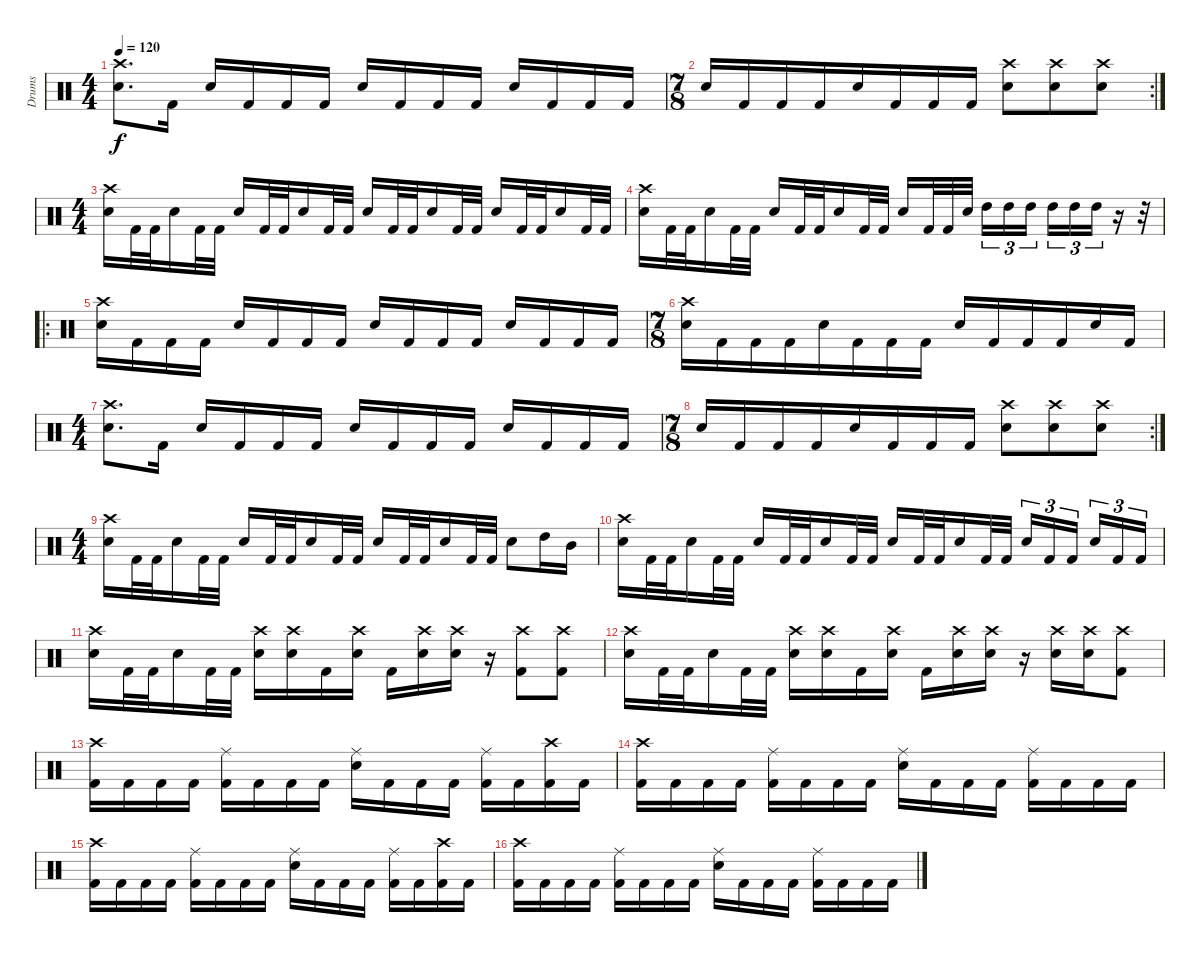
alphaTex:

\track ("Drums" "Drums") {instrument percussion}
\staff {score}
\articulation defaults
\ts (4 4)
\tempo 120
\clef neutral
\ks c
("Crash high (hit)" "Electric Snare (hit)").8{d dy f} "Kick (hit) 2".16 "Electric Snare (hit)".16 "Kick (hit) 2".16 "Kick (hit) 2".16 "Kick (hit) 2".16 "Electric Snare (hit)".16 "Kick (hit) 2".16 "Kick (hit) 2".16 "Kick (hit) 2".16 "Electric Snare (hit)".16 "Kick (hit) 2".16 "Kick (hit) 2".16 "Kick (hit) 2".16 |
\rc 2
\ts (7 8)
"Electric Snare (hit)".16 "Kick (hit) 2".16 "Kick (hit) 2".16 "Kick (hit) 2".16 "Electric Snare (hit)".16 "Kick (hit) 2".16 "Kick (hit) 2".16 "Kick (hit) 2".16 ("Crash high (hit)" "Electric Snare (hit)").8 ("Crash high (hit)" "Electric Snare (hit)").8 ("Crash high (hit)" "Electric Snare (hit)").8 |
\ts (4 4)
("Crash high (hit)" "Electric Snare (hit)").16 "Kick (hit) 2".32 "Kick (hit) 2".32 "Electric Snare (hit)".16 "Kick (hit) 2".32 "Kick (hit) 2".32 "Electric Snare (hit)".16 "Kick (hit) 2".32 "Kick (hit) 2".32 "Electric Snare (hit)".16 "Kick (hit) 2".32 "Kick (hit) 2".32 "Electric Snare (hit)".16 "Kick (hit) 2".32 "Kick (hit) 2".32 "Electric Snare (hit)".16 "Kick (hit) 2".32 "Kick (hit) 2".32 "Electric Snare (hit)".16 "Kick (hit) 2".32 "Kick (hit) 2".32 "Electric Snare (hit)".16 "Kick (hit) 2".32 "Kick (hit) 2".32 |
("Crash high (hit)" "Electric Snare (hit)").16 "Kick (hit) 2".32 "Kick (hit) 2".32 "Electric Snare (hit)".16 "Kick (hit) 2".32 "Kick (hit) 2".32 "Electric Snare (hit)".16 "Kick (hit) 2".32 "Kick (hit) 2".32 "Electric Snare (hit)".16 "Kick (hit) 2".32 "Kick (hit) 2".32 "Electric Snare (hit)".16 "Kick (hit) 2".32 "Kick (hit) 2".32 "Electric Snare (hit)".32{beam splitsecondary} "High Tom (hit)".16{tu (3 2)} "High Tom (hit)".16{tu (3 2)} "High Tom (hit)".16{tu (3 2)} "High Tom (hit)".16{tu (3 2)} "High Tom (hit)".16{tu (3 2)} "High Tom (hit)".16{tu (3 2)} r.16 r.32 |
\ro
("Crash high (hit)" "Electric Snare (hit)").16 "Kick (hit) 2".16 "Kick (hit) 2".16 "Kick (hit) 2".16 "Electric Snare (hit)".16 "Kick (hit) 2".16 "Kick (hit) 2".16 "Kick (hit) 2".16 "Electric Snare (hit)".16 "Kick (hit) 2".16 "Kick (hit) 2".16 "Kick (hit) 2".16 "Electric Snare (hit)".16 "Kick (hit) 2".16 "Kick (hit) 2".16 "Kick (hit) 2".16 |
\ts (7 8)
("Crash high (hit)" "Electric Snare (hit)").16 "Kick (hit) 2".16 "Kick (hit) 2".16 "Kick (hit) 2".16 "Electric Snare (hit)".16 "Kick (hit) 2".16 "Kick (hit) 2".16 "Kick (hit) 2".16 "Electric Snare (hit)".16 "Kick (hit) 2".16 "Kick (hit) 2".16 "Kick (hit) 2".16 "Electric Snare (hit)".16 "Kick (hit) 2".16 |
\ts (4 4)
("Crash high (hit)" "Electric Snare (hit)").8{d} "Kick (hit) 2".16 "Electric Snare (hit)".16 "Kick (hit) 2".16 "Kick (hit) 2".16 "Kick (hit) 2".16 "Electric Snare (hit)".16 "Kick (hit) 2".16 "Kick (hit) 2".16 "Kick (hit) 2".16 "Electric Snare (hit)".16 "Kick (hit) 2".16 "Kick (hit) 2".16 "Kick (hit) 2".16 |
\rc 2
\ts (7 8)
"Electric Snare (hit)".16 "Kick (hit) 2".16 "Kick (hit) 2".16 "Kick (hit) 2".16 "Electric Snare (hit)".16 "Kick (hit) 2".16 "Kick (hit) 2".16 "Kick (hit) 2".16 ("Crash high (hit)" "Electric Snare (hit)").8 ("Crash high (hit)" "Electric Snare (hit)").8 ("Crash high (hit)" "Electric Snare (hit)").8 |
\ts (4 4)
("Crash high (hit)" "Electric Snare (hit)").16 "Kick (hit) 2".32 "Kick (hit) 2".32 "Electric Snare (hit)".16 "Kick (hit) 2".32 "Kick (hit) 2".32 "Electric Snare (hit)".16 "Kick (hit) 2".32 "Kick (hit) 2".32 "Electric Snare (hit)".16 "Kick (hit) 2".32 "Kick (hit) 2".32 "Electric Snare (hit)".16 "Kick (hit) 2".32 "Kick (hit) 2".32 "Electric Snare (hit)".16 "Kick (hit) 2".32 "Kick (hit) 2".32 "Electric Snare (hit)".8 "High Tom (hit)".16 "Mid Tom (hit)".16 |
("Crash high (hit)" "Electric Snare (hit)").16 "Kick (hit) 2".32 "Kick (hit) 2".32 "Electric Snare (hit)".16 "Kick (hit) 2".32 "Kick (hit) 2".32 "Electric Snare (hit)".16 "Kick (hit) 2".32 "Kick (hit) 2".32 "Electric Snare (hit)".16 "Kick (hit) 2".32 "Kick (hit) 2".32 "Electric Snare (hit)".16 "Kick (hit) 2".32 "Kick (hit) 2".32 "Electric Snare (hit)".16 "Kick (hit) 2".32 "Kick (hit) 2".32 "Electric Snare (hit)".16{tu (3 2)} "Kick (hit) 2".16{tu (3 2)} "Kick (hit) 2".16{tu (3 2) beam splitsecondary} "Electric Snare (hit)".16{tu (3 2)} "Kick (hit) 2".16{tu (3 2)} "Kick (hit) 2".16{tu (3 2)} |
("Crash high (hit)" "Electric Snare (hit)").16 "Kick (hit) 2".32 "Kick (hit) 2".32 "Electric Snare (hit)".16 "Kick (hit) 2".32 "Kick (hit) 2".32 ("Crash high (hit)" "Electric Snare (hit)").16 ("Crash high (hit)" "Electric Snare (hit)").16 "Kick (hit) 2".16 ("Crash high (hit)" "Electric Snare (hit)").16 "Kick (hit) 2".16 ("Crash high (hit)" "Electric Snare (hit)").16 ("Crash high (hit)" "Electric Snare (hit)").16 r.16 ("Crash high (hit)" "Kick (hit) 2").8 ("Crash high (hit)" "Kick (hit) 2").8 |
("Crash high (hit)" "Electric Snare (hit)").16 "Kick (hit) 2".32 "Kick (hit) 2".32 "Electric Snare (hit)".16 "Kick (hit) 2".32 "Kick (hit) 2".32 ("Crash high (hit)" "Electric Snare (hit)").16 ("Crash high (hit)" "Electric Snare (hit)").16 "Kick (hit) 2".16 ("Crash high (hit)" "Electric Snare (hit)").16 "Kick (hit) 2".16 ("Crash high (hit)" "Electric Snare (hit)").16 ("Crash high (hit)" "Electric Snare (hit)").16 r.16 ("Crash high (hit)" "Electric Snare (hit)").16 ("Crash high (hit)" "Electric Snare (hit)").16 ("Crash high (hit)" "Kick (hit) 2").8 |
("Crash high (hit)" "Kick (hit) 2").16 "Kick (hit) 2".16 "Kick (hit) 2".16 "Kick (hit) 2".16 ("Ride (middle)" "Kick (hit) 2").16 "Kick (hit) 2".16 "Kick (hit) 2".16 "Kick (hit) 2".16 ("Ride (middle)" "Electric Snare (hit)").16 "Kick (hit) 2".16 "Kick (hit) 2".16 "Kick (hit) 2".16 ("Ride (middle)" "Kick (hit) 2").16 "Kick (hit) 2".16 ("Crash high (hit)" "Kick (hit) 2").16 "Kick (hit) 2".16 |
("Crash high (hit)" "Kick (hit) 2").16 "Kick (hit) 2".16 "Kick (hit) 2".16 "Kick (hit) 2".16 ("Ride (middle)" "Kick (hit) 2").16 "Kick (hit) 2".16 "Kick (hit) 2".16 "Kick (hit) 2".16 ("Ride (middle)" "Electric Snare (hit)").16 "Kick (hit) 2".16 "Kick (hit) 2".16 "Kick (hit) 2".16 ("Ride (middle)" "Kick (hit) 2").16 "Kick (hit) 2".16 "Kick (hit) 2".16 "Kick (hit) 2".16 |
("Crash high (hit)" "Kick (hit) 2").16 "Kick (hit) 2".16 "Kick (hit) 2".16 "Kick (hit) 2".16 ("Ride (middle)" "Kick (hit) 2").16 "Kick (hit) 2".16 "Kick (hit) 2".16 "Kick (hit) 2".16 ("Ride (middle)" "Electric Snare (hit)").16 "Kick (hit) 2".16 "Kick (hit) 2".16 "Kick (hit) 2".16 ("Ride (middle)" "Kick (hit) 2").16 "Kick (hit) 2".16 ("Crash high (hit)" "Kick (hit) 2").16 "Kick (hit) 2".16 |
("Crash high (hit)" "Kick (hit) 2").16 "Kick (hit) 2".16 "Kick (hit) 2".16 "Kick (hit) 2".16 ("Ride (middle)" "Kick (hit) 2").16 "Kick (hit) 2".16 "Kick (hit) 2".16 "Kick (hit) 2".16 ("Ride (middle)" "Electric Snare (hit)").16 "Kick (hit) 2".16 "Kick (hit) 2".16 "Kick (hit) 2".16 ("Ride (middle)" "Kick (hit) 2").16 "Kick (hit) 2".16 "Kick (hit) 2".16 "Kick (hit) 2".16
